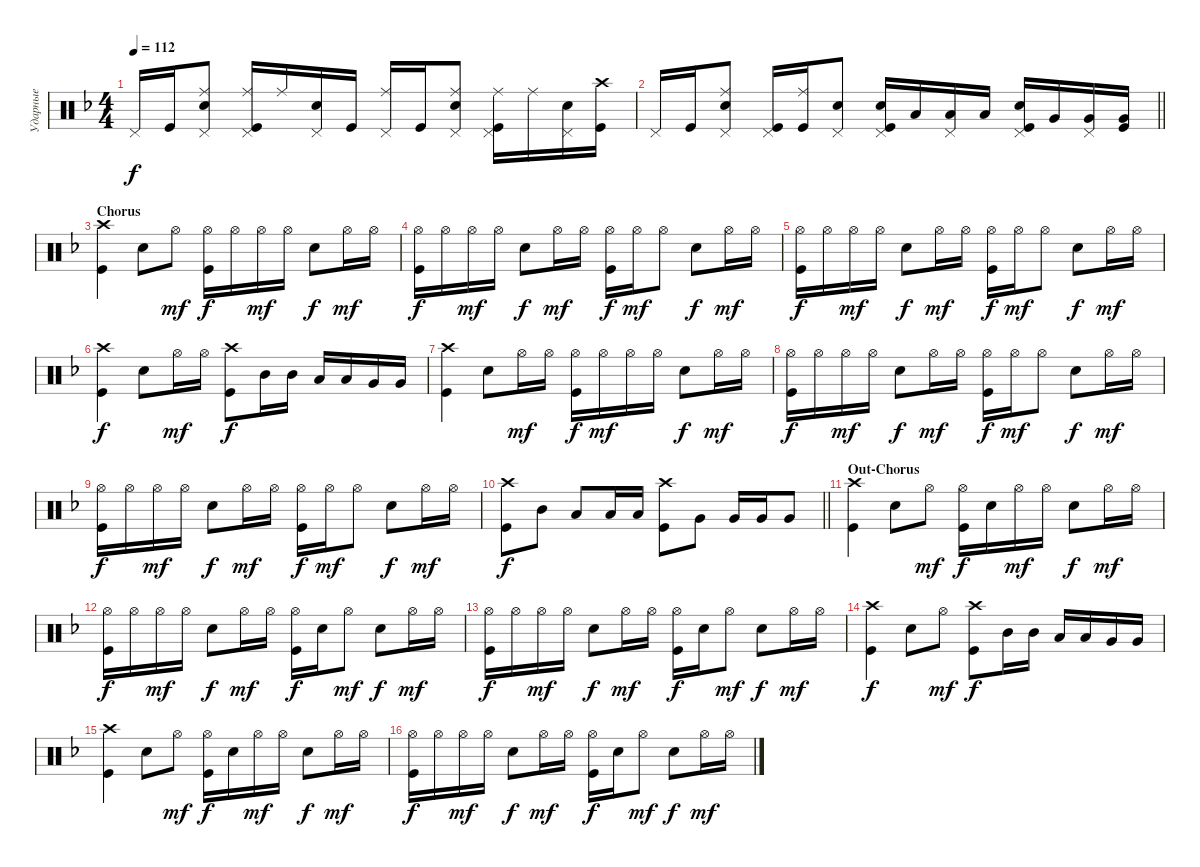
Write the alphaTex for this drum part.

\track ("Ударные" "Ударные") {instrument percussion}
\staff {score}
\articulation defaults
\ts (4 4)
\tempo 112
\clef neutral
\ks dminor "Pedal Hi-Hat (hit)".16{dy f} "Kick (hit)".16
("Snare (hit) 2" "Pedal Hi-Hat (hit)" "Ride (middle)").8 ("Kick (hit)" "Pedal Hi-Hat (hit)" "Ride (middle)").16 "Ride (middle)".16 ("Snare (hit) 2" "Pedal Hi-Hat (hit)").16 "Kick (hit)".16 ("Pedal Hi-Hat (hit)" "Ride (middle)").16 "Kick (hit)".16 ("Snare (hit) 2" "Pedal Hi-Hat (hit)" "Ride (middle)").8 ("Kick (hit)" "Pedal Hi-Hat (hit)" "Ride (middle)").16 "Ride (middle)".16 ("Snare (hit) 2" "Pedal Hi-Hat (hit)").16 ("Kick (hit)" "Crash high (hit)").16 |
\barLineRight lightlight "Pedal Hi-Hat (hit)".16 "Kick (hit)".16
("Snare (hit) 2" "Pedal Hi-Hat (hit)" "Ride (middle)").8 ("Kick (hit)" "Pedal Hi-Hat (hit)").16 ("Ride (middle)" "Kick (hit)").16 ("Snare (hit) 2" "Pedal Hi-Hat (hit)").8 ("Pedal Hi-Hat (hit)" "Kick (hit)" "Snare (hit) 2").16{bd 480} "Low Tom (hit)".16 ("Low Tom (hit)" "Pedal Hi-Hat (hit)").16 "Low Tom (hit)".16 ("Snare (hit) 2" "Pedal Hi-Hat (hit)" "Kick (hit)").16 "Very Low Tom (hit)".16 ("Pedal Hi-Hat (hit)" "Very Low Tom (hit)").16 ("Kick (hit)" "Very Low Tom (hit)").16 |
\section ("" "Chorus")
("Kick (hit)" "Crash high (hit)").4 "Snare (hit) 2".8 "Hi-Hat (open)".8{dy mf} ("Hi-Hat (open)" "Kick (hit)").16{dy f} "Hi-Hat (open)".16 "Hi-Hat (open)".16{dy mf} "Hi-Hat (open)".16 "Snare (hit) 2".8{dy f} "Hi-Hat (open)".16{dy mf} "Hi-Hat (open)".16 |
("Kick (hit)" "Hi-Hat (open)").16{dy f} "Hi-Hat (open)".16 "Hi-Hat (open)".16{dy mf} "Hi-Hat (open)".16 "Snare (hit) 2".8{dy f} "Hi-Hat (open)".16{dy mf} "Hi-Hat (open)".16 ("Hi-Hat (open)" "Kick (hit)").16{dy f} "Hi-Hat (open)".16{dy mf} "Hi-Hat (open)".8 "Snare (hit) 2".8{dy f} "Hi-Hat (open)".16{dy mf} "Hi-Hat (open)".16 |
("Kick (hit)" "Hi-Hat (open)").16{dy f} "Hi-Hat (open)".16 "Hi-Hat (open)".16{dy mf} "Hi-Hat (open)".16 "Snare (hit) 2".8{dy f} "Hi-Hat (open)".16{dy mf} "Hi-Hat (open)".16 ("Hi-Hat (open)" "Kick (hit)").16{dy f} "Hi-Hat (open)".16{dy mf} "Hi-Hat (open)".8 "Snare (hit) 2".8{dy f} "Hi-Hat (open)".16{dy mf} "Hi-Hat (open)".16 |
("Kick (hit)" "Crash high (hit)").4{dy f} "Snare (hit) 2".8 "Hi-Hat (open)".16{dy mf} "Hi-Hat (open)".16 ("Kick (hit)" "Crash high (hit)").8{dy f} "Mid Tom (hit)".16 "Mid Tom (hit)".16 "Low Tom (hit)".16 "Low Tom (hit)".16 "Very Low Tom (hit)".16 "Very Low Tom (hit)".16 |
("Kick (hit)" "Crash high (hit)").4 "Snare (hit) 2".8 "Hi-Hat (open)".16{dy mf} "Hi-Hat (open)".16 ("Hi-Hat (open)" "Kick (hit)").16{dy f} "Hi-Hat (open)".16{dy mf} "Hi-Hat (open)".16 "Hi-Hat (open)".16 "Snare (hit) 2".8{dy f} "Hi-Hat (open)".16{dy mf} "Hi-Hat (open)".16 |
("Kick (hit)" "Hi-Hat (open)").16{dy f} "Hi-Hat (open)".16 "Hi-Hat (open)".16{dy mf} "Hi-Hat (open)".16 "Snare (hit) 2".8{dy f} "Hi-Hat (open)".16{dy mf} "Hi-Hat (open)".16 ("Hi-Hat (open)" "Kick (hit)").16{dy f} "Hi-Hat (open)".16{dy mf} "Hi-Hat (open)".8 "Snare (hit) 2".8{dy f} "Hi-Hat (open)".16{dy mf} "Hi-Hat (open)".16 |
("Kick (hit)" "Hi-Hat (open)").16{dy f} "Hi-Hat (open)".16 "Hi-Hat (open)".16{dy mf} "Hi-Hat (open)".16 "Snare (hit) 2".8{dy f} "Hi-Hat (open)".16{dy mf} "Hi-Hat (open)".16 ("Hi-Hat (open)" "Kick (hit)").16{dy f} "Hi-Hat (open)".16{dy mf} "Hi-Hat (open)".8 "Snare (hit) 2".8{dy f} "Hi-Hat (open)".16{dy mf} "Hi-Hat (open)".16 |
\barLineRight lightlight
("Kick (hit)" "Crash high (hit)").8{dy f} "Mid Tom (hit)".8 "Low Tom (hit)".8 "Low Tom (hit)".16 "Low Tom (hit)".16 ("Kick (hit)" "Crash high (hit)").8 "Very Low Tom (hit)".8 "Very Low Tom (hit)".16 "Very Low Tom (hit)".16 "Very Low Tom (hit)".8 |
\section ("" "Out-Chorus")
("Kick (hit)" "Crash high (hit)").4 "Snare (hit) 2".8 "Hi-Hat (open)".8{dy mf} ("Hi-Hat (open)" "Kick (hit)").16{dy f} "Snare (hit) 2".16 "Hi-Hat (open)".16{dy mf} "Hi-Hat (open)".16 "Snare (hit) 2".8{dy f} "Hi-Hat (open)".16{dy mf} "Hi-Hat (open)".16 |
("Kick (hit)" "Hi-Hat (open)").16{dy f} "Hi-Hat (open)".16 "Hi-Hat (open)".16{dy mf} "Hi-Hat (open)".16 "Snare (hit) 2".8{dy f} "Hi-Hat (open)".16{dy mf} "Hi-Hat (open)".16 ("Hi-Hat (open)" "Kick (hit)").16{dy f} "Snare (hit) 2".16 "Hi-Hat (open)".8{dy mf} "Snare (hit) 2".8{dy f} "Hi-Hat (open)".16{dy mf} "Hi-Hat (open)".16 |
("Kick (hit)" "Hi-Hat (open)").16{dy f} "Hi-Hat (open)".16 "Hi-Hat (open)".16{dy mf} "Hi-Hat (open)".16 "Snare (hit) 2".8{dy f} "Hi-Hat (open)".16{dy mf} "Hi-Hat (open)".16 ("Hi-Hat (open)" "Kick (hit)").16{dy f} "Snare (hit) 2".16 "Hi-Hat (open)".8{dy mf} "Snare (hit) 2".8{dy f} "Hi-Hat (open)".16{dy mf} "Hi-Hat (open)".16 |
("Kick (hit)" "Crash high (hit)").4{dy f} "Snare (hit) 2".8 "Hi-Hat (open)".8{dy mf} ("Kick (hit)" "Crash high (hit)").8{dy f} "Mid Tom (hit)".16 "Mid Tom (hit)".16 "Low Tom (hit)".16 "Low Tom (hit)".16 "Very Low Tom (hit)".16 "Very Low Tom (hit)".16 |
("Kick (hit)" "Crash high (hit)").4 "Snare (hit) 2".8 "Hi-Hat (open)".8{dy mf} ("Hi-Hat (open)" "Kick (hit)").16{dy f} "Snare (hit) 2".16 "Hi-Hat (open)".16{dy mf} "Hi-Hat (open)".16 "Snare (hit) 2".8{dy f} "Hi-Hat (open)".16{dy mf} "Hi-Hat (open)".16 |
("Kick (hit)" "Hi-Hat (open)").16{dy f} "Hi-Hat (open)".16 "Hi-Hat (open)".16{dy mf} "Hi-Hat (open)".16 "Snare (hit) 2".8{dy f} "Hi-Hat (open)".16{dy mf} "Hi-Hat (open)".16 ("Hi-Hat (open)" "Kick (hit)").16{dy f} "Snare (hit) 2".16 "Hi-Hat (open)".8{dy mf} "Snare (hit) 2".8{dy f} "Hi-Hat (open)".16{dy mf} "Hi-Hat (open)".16
